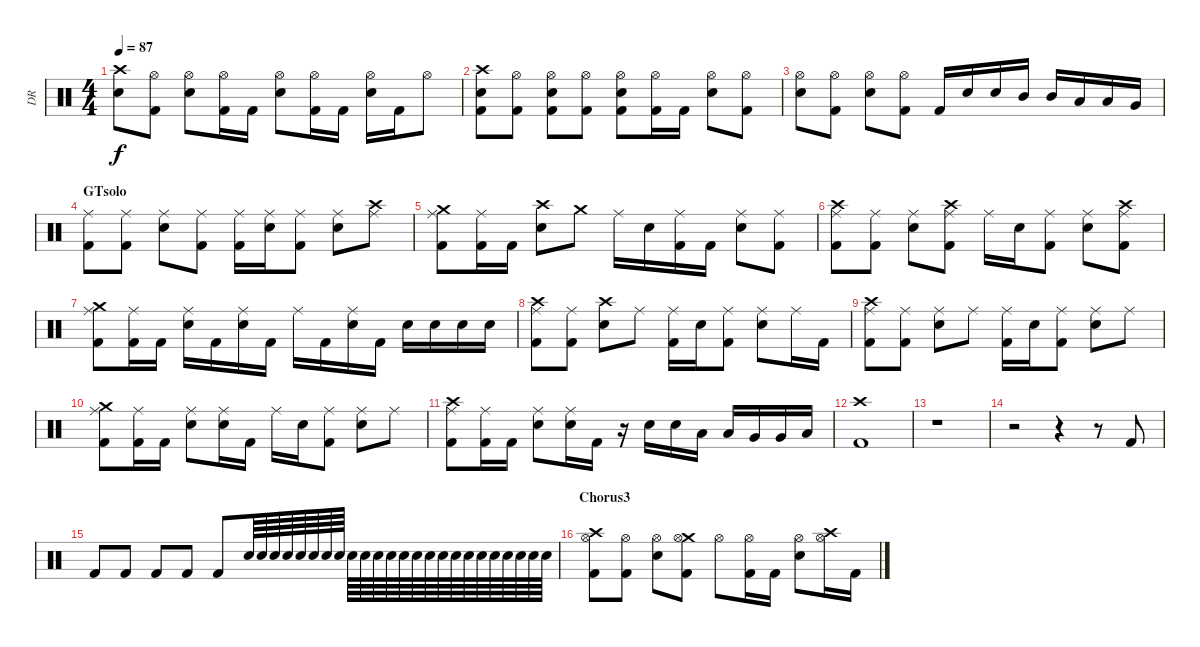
\track ("DR" "DR") {instrument percussion}
\staff {score}
\articulation defaults
\ts (4 4)
\tempo 87
\clef neutral
\ks c
("Crash high (hit)" "Electric Snare (hit)").8{dy f} ("Hi-Hat (open)" "Kick (hit) 2").8 ("Hi-Hat (open)" "Electric Snare (hit)").8 ("Hi-Hat (open)" "Kick (hit) 2").16 "Kick (hit) 2".16 ("Hi-Hat (open)" "Electric Snare (hit)").8 ("Hi-Hat (open)" "Kick (hit) 2").16 "Kick (hit) 2".16 ("Hi-Hat (open)" "Electric Snare (hit)").16 "Kick (hit) 2".16 "Hi-Hat (open)".8 |
("Crash high (hit)" "Electric Snare (hit)" "Kick (hit) 2").8 ("Hi-Hat (open)" "Kick (hit) 2").8 ("Hi-Hat (open)" "Electric Snare (hit)" "Kick (hit) 2").8 ("Hi-Hat (open)" "Kick (hit) 2").8 ("Hi-Hat (open)" "Electric Snare (hit)" "Kick (hit) 2").8 ("Hi-Hat (open)" "Kick (hit) 2").16 "Kick (hit) 2".16 ("Hi-Hat (open)" "Electric Snare (hit)").8 ("Hi-Hat (open)" "Kick (hit) 2").8 |
("Hi-Hat (open)" "Electric Snare (hit)").8 ("Hi-Hat (open)" "Kick (hit) 2").8 ("Hi-Hat (open)" "Electric Snare (hit)").8 ("Hi-Hat (open)" "Kick (hit) 2").8 "Kick (hit) 2".16 "Electric Snare (hit)".16 "Electric Snare (hit)".16 "Mid Tom (hit)".16 "Mid Tom (hit)".16 "Low Tom (hit)".16 "Low Tom (hit)".16 "Very Low Tom (hit)".16 |
\section ("" "GTsolo")
("Ride (middle)" "Kick (hit) 2").8 ("Ride (middle)" "Kick (hit) 2").8 ("Ride (middle)" "Electric Snare (hit)").8 ("Ride (middle)" "Kick (hit) 2").8 ("Ride (middle)" "Kick (hit) 2").16 ("Ride (middle)" "Electric Snare (hit)").16 ("Ride (middle)" "Kick (hit) 2").8 ("Ride (middle)" "Electric Snare (hit)").8 ("Crash high (hit)" "Ride (middle)").8 |
("Crash medium (hit)" "Ride (middle)" "Kick (hit) 2").8 ("Ride (middle)" "Kick (hit) 2").16 "Kick (hit) 2".16 ("Crash high (hit)" "Electric Snare (hit)").8 "Crash medium (hit)".8 "Ride (middle)".16 "Electric Snare (hit)".16 ("Ride (middle)" "Kick (hit) 2").16 "Kick (hit) 2".16 ("Ride (middle)" "Electric Snare (hit)").8 ("Ride (middle)" "Kick (hit) 2").8 |
("Crash high (hit)" "Ride (middle)" "Kick (hit) 2").8 ("Ride (middle)" "Kick (hit) 2").8 ("Ride (middle)" "Electric Snare (hit)").8 ("Crash high (hit)" "Ride (middle)" "Kick (hit) 2").8 "Ride (middle)".16 "Electric Snare (hit)".16 ("Ride (middle)" "Kick (hit) 2").8 ("Ride (middle)" "Electric Snare (hit)").8 ("Crash high (hit)" "Ride (middle)" "Kick (hit) 2").8 |
("Crash medium (hit)" "Ride (middle)" "Kick (hit) 2").8 ("Ride (middle)" "Kick (hit) 2").16 "Kick (hit) 2".16 ("Ride (middle)" "Electric Snare (hit)").16 "Kick (hit) 2".16 ("Ride (middle)" "Electric Snare (hit)").16 "Kick (hit) 2".16 "Ride (middle)".16 "Kick (hit) 2".16 ("Ride (middle)" "Electric Snare (hit)").16 "Kick (hit) 2".16 "Electric Snare (hit)".16 "Electric Snare (hit)".16 "Electric Snare (hit)".16 "Electric Snare (hit)".16 |
("Crash high (hit)" "Ride (middle)" "Kick (hit) 2").8 ("Ride (middle)" "Kick (hit) 2").8 ("Crash high (hit)" "Electric Snare (hit)").8 "Ride (middle)".8 ("Ride (middle)" "Kick (hit) 2").16 "Electric Snare (hit)".16 ("Ride (middle)" "Kick (hit) 2").8 ("Ride (middle)" "Electric Snare (hit)").8 "Ride (middle)".16 "Kick (hit) 2".16 |
("Crash high (hit)" "Ride (middle)" "Kick (hit) 2").8 ("Ride (middle)" "Kick (hit) 2").8 ("Ride (middle)" "Electric Snare (hit)").8 "Ride (middle)".8 ("Ride (middle)" "Kick (hit) 2").16 "Electric Snare (hit)".16 ("Ride (middle)" "Kick (hit) 2").8 ("Ride (middle)" "Electric Snare (hit)").8 "Ride (middle)".8 |
("Crash medium (hit)" "Ride (middle)" "Kick (hit) 2").8 ("Ride (middle)" "Kick (hit) 2").16 "Kick (hit) 2".16 ("Ride (middle)" "Electric Snare (hit)").8 ("Ride (middle)" "Electric Snare (hit)").16 "Kick (hit) 2".16 "Ride (middle)".16 "Electric Snare (hit)".16 ("Ride (middle)" "Kick (hit) 2").8 ("Ride (middle)" "Electric Snare (hit)").8 "Ride (middle)".8 |
("Crash high (hit)" "Ride (middle)" "Kick (hit) 2").8 ("Ride (middle)" "Kick (hit) 2").16 "Kick (hit) 2".16 ("Ride (middle)" "Electric Snare (hit)").8 ("Ride (middle)" "Electric Snare (hit)").16 "Kick (hit) 2".16 r.16 "Electric Snare (hit)".16 "Electric Snare (hit)".16 "Low Tom (hit)".16 "Low Tom (hit)".16 "Very Low Tom (hit)".16 "Very Low Tom (hit)".16 "Low Floor Tom (hit)".16 |
("Crash high (hit)" "Kick (hit) 2").1 |
r.1 |
r.2 r.4 r.8 "Kick (hit) 2".8 |
"Kick (hit) 2".8 "Kick (hit) 2".8 "Kick (hit) 2".8 "Kick (hit) 2".8 "Kick (hit) 2".8 "Electric Snare (hit)".64 "Electric Snare (hit)".64 "Electric Snare (hit)".64 "Electric Snare (hit)".64 "Electric Snare (hit)".64 "Electric Snare (hit)".64 "Electric Snare (hit)".64 "Electric Snare (hit)".64 "Electric Snare (hit)".64 "Electric Snare (hit)".64 "Electric Snare (hit)".64 "Electric Snare (hit)".64 "Electric Snare (hit)".64 "Electric Snare (hit)".64 "Electric Snare (hit)".64 "Electric Snare (hit)".64 "Electric Snare (hit)".64 "Electric Snare (hit)".64 "Electric Snare (hit)".64 "Electric Snare (hit)".64 "Electric Snare (hit)".64 "Electric Snare (hit)".64 "Electric Snare (hit)".64 "Electric Snare (hit)".64 |
\section ("" "Chorus3")
("Crash high (hit)" "Hi-Hat (open)" "Kick (hit) 2").8 ("Hi-Hat (open)" "Kick (hit) 2").8 ("Hi-Hat (open)" "Electric Snare (hit)").8 ("Crash medium (hit)" "Hi-Hat (open)" "Kick (hit) 2").8 "Hi-Hat (open)".8 ("Hi-Hat (open)" "Kick (hit) 2").16 "Kick (hit) 2".16 ("Hi-Hat (open)" "Electric Snare (hit)").8 ("Crash high (hit)" "Hi-Hat (open)").16 "Kick (hit) 2".16
